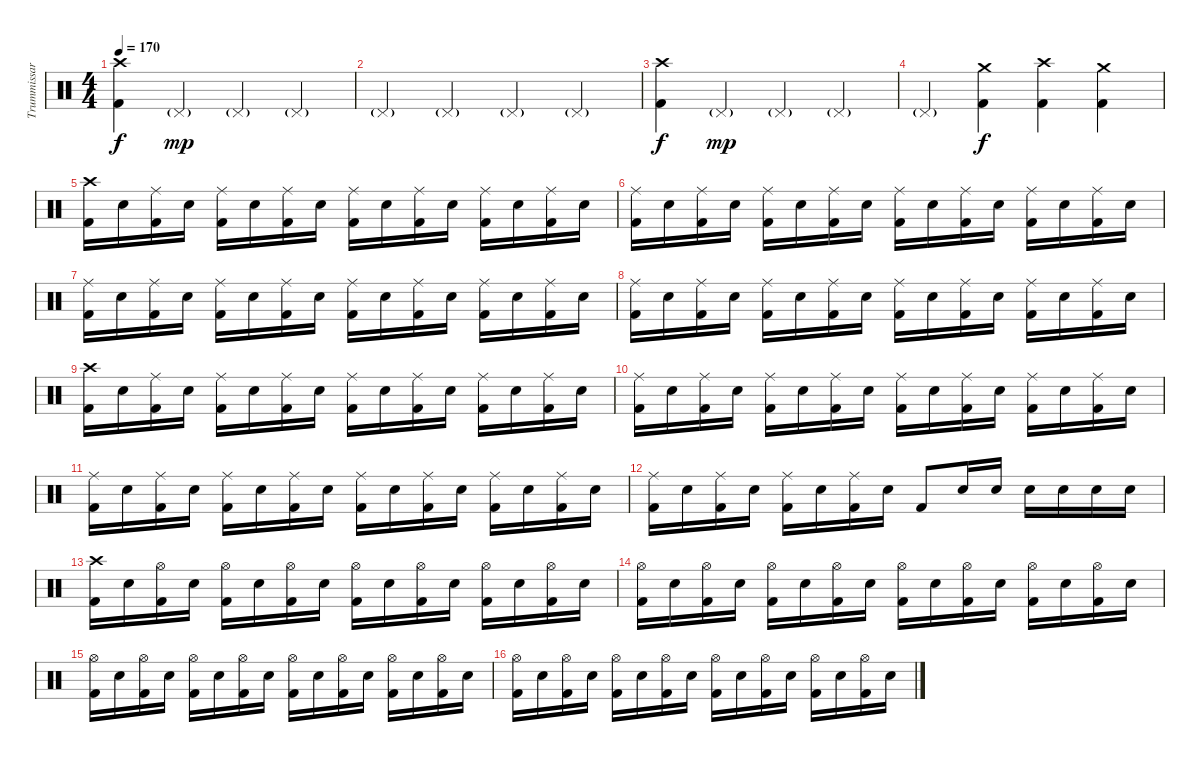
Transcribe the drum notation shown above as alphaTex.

\track ("Trummissar!!" "Trummissar") {instrument percussion}
\staff {score}
\articulation defaults
\ts (4 4)
\tempo 170
\clef neutral
\ks c
("Crash high (hit)" "Kick (hit) 2").4{dy f} "Pedal Hi-Hat (hit)"{g}.4{dy mp} "Pedal Hi-Hat (hit)"{g}.4 "Pedal Hi-Hat (hit)"{g}.4 |
"Pedal Hi-Hat (hit)"{g}.4 "Pedal Hi-Hat (hit)"{g}.4 "Pedal Hi-Hat (hit)"{g}.4 "Pedal Hi-Hat (hit)"{g}.4 |
("Crash high (hit)" "Kick (hit) 2").4{dy f} "Pedal Hi-Hat (hit)"{g}.4{dy mp} "Pedal Hi-Hat (hit)"{g}.4 "Pedal Hi-Hat (hit)"{g}.4 |
"Pedal Hi-Hat (hit)"{g}.4 ("Crash medium (hit)" "Kick (hit) 2").4{dy f} ("Crash high (hit)" "Kick (hit) 2").4 ("Crash medium (hit)" "Kick (hit) 2").4 |
("Crash high (hit)" "Kick (hit) 2").16 "Electric Snare (hit)".16 ("Ride (middle)" "Kick (hit) 2").16 "Electric Snare (hit)".16 ("Ride (middle)" "Kick (hit) 2").16 "Electric Snare (hit)".16 ("Ride (middle)" "Kick (hit) 2").16 "Electric Snare (hit)".16 ("Ride (middle)" "Kick (hit) 2").16 "Electric Snare (hit)".16 ("Ride (middle)" "Kick (hit) 2").16 "Electric Snare (hit)".16 ("Ride (middle)" "Kick (hit) 2").16 "Electric Snare (hit)".16 ("Ride (middle)" "Kick (hit) 2").16 "Electric Snare (hit)".16 |
("Ride (middle)" "Kick (hit) 2").16 "Electric Snare (hit)".16 ("Ride (middle)" "Kick (hit) 2").16 "Electric Snare (hit)".16 ("Ride (middle)" "Kick (hit) 2").16 "Electric Snare (hit)".16 ("Ride (middle)" "Kick (hit) 2").16 "Electric Snare (hit)".16 ("Ride (middle)" "Kick (hit) 2").16 "Electric Snare (hit)".16 ("Ride (middle)" "Kick (hit) 2").16 "Electric Snare (hit)".16 ("Ride (middle)" "Kick (hit) 2").16 "Electric Snare (hit)".16 ("Ride (middle)" "Kick (hit) 2").16 "Electric Snare (hit)".16 |
("Ride (middle)" "Kick (hit) 2").16 "Electric Snare (hit)".16 ("Ride (middle)" "Kick (hit) 2").16 "Electric Snare (hit)".16 ("Ride (middle)" "Kick (hit) 2").16 "Electric Snare (hit)".16 ("Ride (middle)" "Kick (hit) 2").16 "Electric Snare (hit)".16 ("Ride (middle)" "Kick (hit) 2").16 "Electric Snare (hit)".16 ("Ride (middle)" "Kick (hit) 2").16 "Electric Snare (hit)".16 ("Ride (middle)" "Kick (hit) 2").16 "Electric Snare (hit)".16 ("Ride (middle)" "Kick (hit) 2").16 "Electric Snare (hit)".16 |
("Ride (middle)" "Kick (hit) 2").16 "Electric Snare (hit)".16 ("Ride (middle)" "Kick (hit) 2").16 "Electric Snare (hit)".16 ("Ride (middle)" "Kick (hit) 2").16 "Electric Snare (hit)".16 ("Ride (middle)" "Kick (hit) 2").16 "Electric Snare (hit)".16 ("Ride (middle)" "Kick (hit) 2").16 "Electric Snare (hit)".16 ("Ride (middle)" "Kick (hit) 2").16 "Electric Snare (hit)".16 ("Ride (middle)" "Kick (hit) 2").16 "Electric Snare (hit)".16 ("Ride (middle)" "Kick (hit) 2").16 "Electric Snare (hit)".16 |
("Crash high (hit)" "Kick (hit) 2").16 "Electric Snare (hit)".16 ("Ride (middle)" "Kick (hit) 2").16 "Electric Snare (hit)".16 ("Ride (middle)" "Kick (hit) 2").16 "Electric Snare (hit)".16 ("Ride (middle)" "Kick (hit) 2").16 "Electric Snare (hit)".16 ("Ride (middle)" "Kick (hit) 2").16 "Electric Snare (hit)".16 ("Ride (middle)" "Kick (hit) 2").16 "Electric Snare (hit)".16 ("Ride (middle)" "Kick (hit) 2").16 "Electric Snare (hit)".16 ("Ride (middle)" "Kick (hit) 2").16 "Electric Snare (hit)".16 |
("Ride (middle)" "Kick (hit) 2").16 "Electric Snare (hit)".16 ("Ride (middle)" "Kick (hit) 2").16 "Electric Snare (hit)".16 ("Ride (middle)" "Kick (hit) 2").16 "Electric Snare (hit)".16 ("Ride (middle)" "Kick (hit) 2").16 "Electric Snare (hit)".16 ("Ride (middle)" "Kick (hit) 2").16 "Electric Snare (hit)".16 ("Ride (middle)" "Kick (hit) 2").16 "Electric Snare (hit)".16 ("Ride (middle)" "Kick (hit) 2").16 "Electric Snare (hit)".16 ("Ride (middle)" "Kick (hit) 2").16 "Electric Snare (hit)".16 |
("Ride (middle)" "Kick (hit) 2").16 "Electric Snare (hit)".16 ("Ride (middle)" "Kick (hit) 2").16 "Electric Snare (hit)".16 ("Ride (middle)" "Kick (hit) 2").16 "Electric Snare (hit)".16 ("Ride (middle)" "Kick (hit) 2").16 "Electric Snare (hit)".16 ("Ride (middle)" "Kick (hit) 2").16 "Electric Snare (hit)".16 ("Ride (middle)" "Kick (hit) 2").16 "Electric Snare (hit)".16 ("Ride (middle)" "Kick (hit) 2").16 "Electric Snare (hit)".16 ("Ride (middle)" "Kick (hit) 2").16 "Electric Snare (hit)".16 |
("Ride (middle)" "Kick (hit) 2").16 "Electric Snare (hit)".16 ("Ride (middle)" "Kick (hit) 2").16 "Electric Snare (hit)".16 ("Ride (middle)" "Kick (hit) 2").16 "Electric Snare (hit)".16 ("Ride (middle)" "Kick (hit) 2").16 "Electric Snare (hit)".16 "Kick (hit) 2".8 "Electric Snare (hit)".16 "Electric Snare (hit)".16 "Electric Snare (hit)".16 "Electric Snare (hit)".16 "Electric Snare (hit)".16 "Electric Snare (hit)".16 |
("Crash high (hit)" "Kick (hit) 2").16 "Electric Snare (hit)".16 ("Hi-Hat (open)" "Kick (hit) 2").16 "Electric Snare (hit)".16 ("Hi-Hat (open)" "Kick (hit) 2").16 "Electric Snare (hit)".16 ("Hi-Hat (open)" "Kick (hit) 2").16 "Electric Snare (hit)".16 ("Hi-Hat (open)" "Kick (hit) 2").16 "Electric Snare (hit)".16 ("Hi-Hat (open)" "Kick (hit) 2").16 "Electric Snare (hit)".16 ("Hi-Hat (open)" "Kick (hit) 2").16 "Electric Snare (hit)".16 ("Hi-Hat (open)" "Kick (hit) 2").16 "Electric Snare (hit)".16 |
("Hi-Hat (open)" "Kick (hit) 2").16 "Electric Snare (hit)".16 ("Hi-Hat (open)" "Kick (hit) 2").16 "Electric Snare (hit)".16 ("Hi-Hat (open)" "Kick (hit) 2").16 "Electric Snare (hit)".16 ("Hi-Hat (open)" "Kick (hit) 2").16 "Electric Snare (hit)".16 ("Hi-Hat (open)" "Kick (hit) 2").16 "Electric Snare (hit)".16 ("Hi-Hat (open)" "Kick (hit) 2").16 "Electric Snare (hit)".16 ("Hi-Hat (open)" "Kick (hit) 2").16 "Electric Snare (hit)".16 ("Hi-Hat (open)" "Kick (hit) 2").16 "Electric Snare (hit)".16 |
("Hi-Hat (open)" "Kick (hit) 2").16 "Electric Snare (hit)".16 ("Hi-Hat (open)" "Kick (hit) 2").16 "Electric Snare (hit)".16 ("Hi-Hat (open)" "Kick (hit) 2").16 "Electric Snare (hit)".16 ("Hi-Hat (open)" "Kick (hit) 2").16 "Electric Snare (hit)".16 ("Hi-Hat (open)" "Kick (hit) 2").16 "Electric Snare (hit)".16 ("Hi-Hat (open)" "Kick (hit) 2").16 "Electric Snare (hit)".16 ("Hi-Hat (open)" "Kick (hit) 2").16 "Electric Snare (hit)".16 ("Hi-Hat (open)" "Kick (hit) 2").16 "Electric Snare (hit)".16 |
("Hi-Hat (open)" "Kick (hit) 2").16 "Electric Snare (hit)".16 ("Hi-Hat (open)" "Kick (hit) 2").16 "Electric Snare (hit)".16 ("Hi-Hat (open)" "Kick (hit) 2").16 "Electric Snare (hit)".16 ("Hi-Hat (open)" "Kick (hit) 2").16 "Electric Snare (hit)".16 ("Hi-Hat (open)" "Kick (hit) 2").16 "Electric Snare (hit)".16 ("Hi-Hat (open)" "Kick (hit) 2").16 "Electric Snare (hit)".16 ("Hi-Hat (open)" "Kick (hit) 2").16 "Electric Snare (hit)".16 ("Hi-Hat (open)" "Kick (hit) 2").16 "Electric Snare (hit)".16
